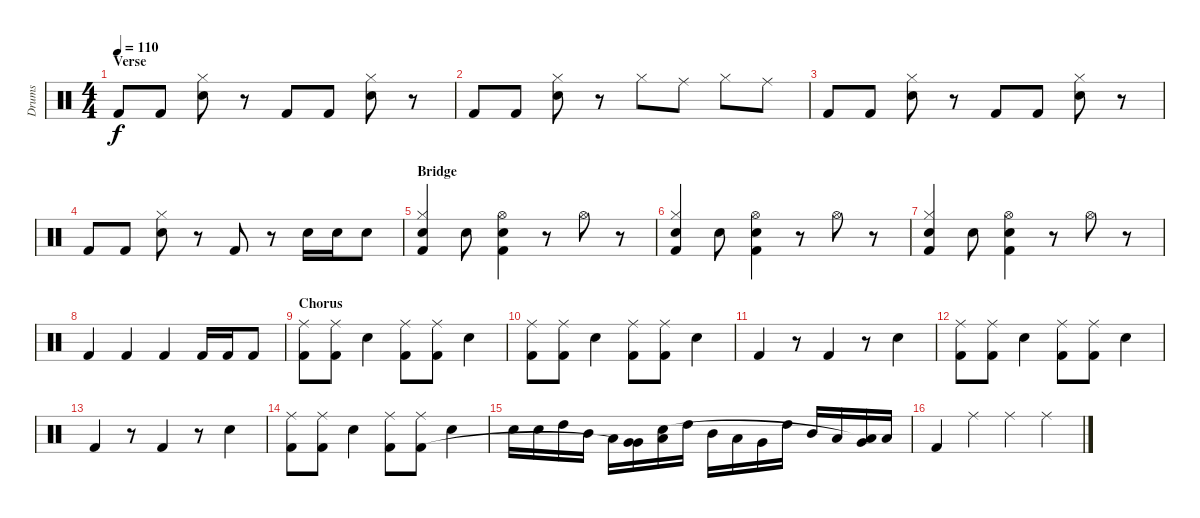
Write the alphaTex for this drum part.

\track ("Drums" "Drums") {instrument percussion}
\staff {score}
\articulation defaults
\ts (4 4)
\section ("" "Verse")
\tempo 110
\clef neutral
\ks c "Kick (hit) 2".8{dy f} "Kick (hit) 2".8
("Hi-Hat (closed)" "Snare (hit) 2").8 r.8 "Kick (hit) 2".8 "Kick (hit) 2".8 ("Hi-Hat (closed)" "Snare (hit) 2").8 r.8 |
"Kick (hit) 2".8 "Kick (hit) 2".8 ("Hi-Hat (closed)" "Snare (hit) 2").8 r.8 "Hi-Hat (closed)".8 "Ride (middle)".8 "Hi-Hat (closed)".8 "Ride (middle)".8 |
"Kick (hit) 2".8 "Kick (hit) 2".8 ("Hi-Hat (closed)" "Snare (hit) 2").8 r.8 "Kick (hit) 2".8 "Kick (hit) 2".8 ("Hi-Hat (closed)" "Snare (hit) 2").8 r.8 |
"Kick (hit) 2".8 "Kick (hit) 2".8 ("Hi-Hat (closed)" "Snare (hit) 2").8 r.8 "Kick (hit) 2".8 r.8 "Snare (hit) 2".16 "Snare (hit) 2".16 "Snare (hit) 2".8 |
\section ("" "Bridge")
("Hi-Hat (closed)" "Snare (hit) 2" "Kick (hit) 2").4 "Snare (hit) 2".8 ("Hi-Hat (open)" "Snare (hit) 2" "Kick (hit) 2").4 r.8 "Hi-Hat (open)".8 r.8 |
("Hi-Hat (closed)" "Snare (hit) 2" "Kick (hit) 2").4 "Snare (hit) 2".8 ("Hi-Hat (open)" "Snare (hit) 2" "Kick (hit) 2").4 r.8 "Hi-Hat (open)".8 r.8 |
("Hi-Hat (closed)" "Snare (hit) 2" "Kick (hit) 2").4 "Snare (hit) 2".8 ("Hi-Hat (open)" "Snare (hit) 2" "Kick (hit) 2").4 r.8 "Hi-Hat (open)".8 r.8 |
"Kick (hit) 2".4 "Kick (hit) 2".4 "Kick (hit) 2".4 "Kick (hit) 2".16 "Kick (hit) 2".16 "Kick (hit) 2".8 |
\section ("" "Chorus")
("Ride (middle)" "Kick (hit) 2").8 ("Ride (middle)" "Kick (hit) 2").8 "Snare (hit) 2".4 ("Ride (middle)" "Kick (hit) 2").8 ("Ride (middle)" "Kick (hit) 2").8 "Snare (hit) 2".4 |
("Ride (middle)" "Kick (hit) 2").8 ("Ride (middle)" "Kick (hit) 2").8 "Snare (hit) 2".4 ("Ride (middle)" "Kick (hit) 2").8 ("Ride (middle)" "Kick (hit) 2").8 "Snare (hit) 2".4 |
"Kick (hit) 2".4 r.8 "Kick (hit) 2".4 r.8 "Snare (hit) 2".4 |
("Ride (middle)" "Kick (hit) 2").8 ("Ride (middle)" "Kick (hit) 2").8 "Snare (hit) 2".4 ("Ride (middle)" "Kick (hit) 2").8 ("Ride (middle)" "Kick (hit) 2").8 "Snare (hit) 2".4 |
"Kick (hit) 2".4 r.8 "Kick (hit) 2".4 r.8 "Snare (hit) 2".4 |
("Ride (middle)" "Kick (hit) 2").8 ("Ride (middle)" "Kick (hit) 2").8 "Snare (hit) 2".4 ("Ride (middle)" "Kick (hit) 2").8 ("Ride (middle)" "Kick (hit) 2").8 "Snare (hit) 2".4 |
"Snare (hit) 2".16 "Snare (hit) 2".16 "High Tom (hit)".16{balance 0} "Mid Tom (hit)".16{balance 16} "Low Tom (hit)".16 ("Very Low Tom (hit)" "Very Low Tom (hit)"{t}).16 ("Low Floor Tom (hit)" "Snare (hit) 2").16 "High Tom (hit)".16 "Mid Tom (hit)".16{balance 0} "Low Tom (hit)".16 "Very Low Tom (hit)".16 "High Tom (hit)".16{balance 16} "Mid Tom (hit)".16 "Low Tom (hit)".16 ("Very Low Tom (hit)" "Low Floor Tom (hit)"{t}).16 "Low Floor Tom (hit)".16 |
"Kick (hit) 2".4{balance 8} "Ride (middle)".4 "Ride (middle)".4 "Ride (middle)".4
